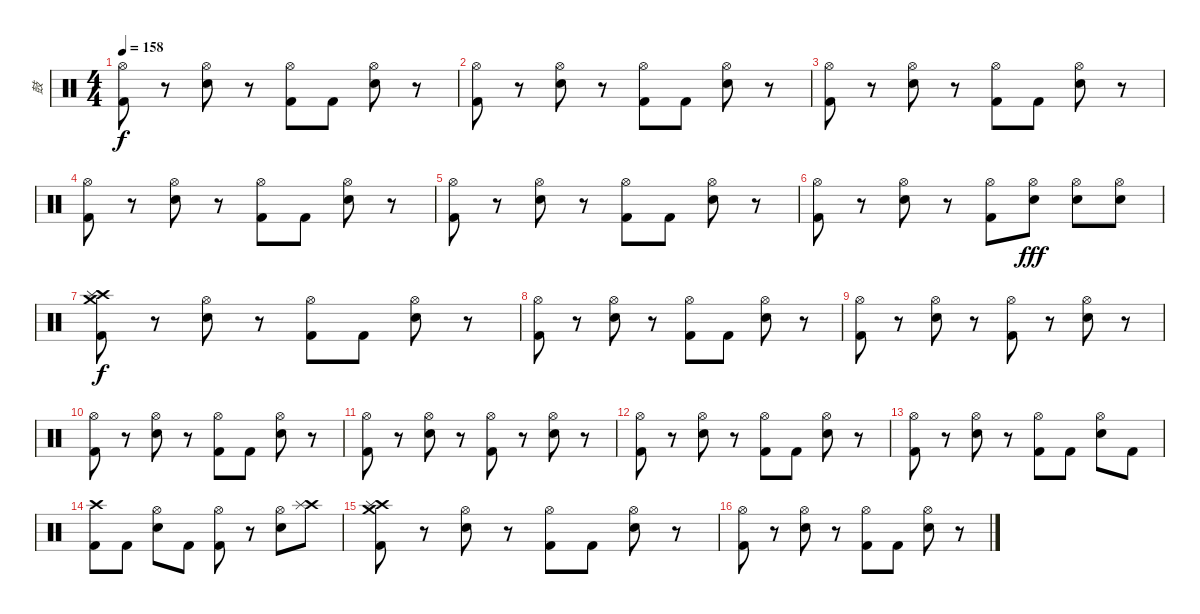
\track ("鼓" "鼓") {instrument percussion}
\staff {score}
\articulation defaults
\ts (4 4)
\tempo 158
\clef neutral
\ks c
("Hi-Hat (open)" "Kick (hit) 2").8{dy f} r.8 ("Hi-Hat (open)" "Electric Snare (hit)").8 r.8 ("Hi-Hat (open)" "Kick (hit) 2").8 "Kick (hit) 2".8 ("Hi-Hat (open)" "Electric Snare (hit)").8 r.8 |
("Hi-Hat (open)" "Kick (hit) 2").8 r.8 ("Hi-Hat (open)" "Electric Snare (hit)").8 r.8 ("Hi-Hat (open)" "Kick (hit) 2").8 "Kick (hit) 2".8 ("Hi-Hat (open)" "Electric Snare (hit)").8 r.8 |
("Hi-Hat (open)" "Kick (hit) 2").8 r.8 ("Hi-Hat (open)" "Electric Snare (hit)").8 r.8 ("Hi-Hat (open)" "Kick (hit) 2").8 "Kick (hit) 2".8 ("Hi-Hat (open)" "Electric Snare (hit)").8 r.8 |
("Hi-Hat (open)" "Kick (hit) 2").8 r.8 ("Hi-Hat (open)" "Electric Snare (hit)").8 r.8 ("Hi-Hat (open)" "Kick (hit) 2").8 "Kick (hit) 2".8 ("Hi-Hat (open)" "Electric Snare (hit)").8 r.8 |
("Hi-Hat (open)" "Kick (hit) 2").8 r.8 ("Hi-Hat (open)" "Electric Snare (hit)").8 r.8 ("Hi-Hat (open)" "Kick (hit) 2").8 "Kick (hit) 2".8 ("Hi-Hat (open)" "Electric Snare (hit)").8 r.8 |
("Hi-Hat (open)" "Kick (hit) 2").8 r.8 ("Hi-Hat (open)" "Electric Snare (hit)").8 r.8 ("Hi-Hat (open)" "Kick (hit) 2").8 ("Hi-Hat (open)" "Electric Snare (hit)").8{dy fff} ("Hi-Hat (open)" "Electric Snare (hit)").8 ("Hi-Hat (open)" "Electric Snare (hit)").8 |
("Crash medium (hit)" "Crash high (hit)" "Splash (hit)" "Kick (hit) 2").8{dy f} r.8 ("Hi-Hat (open)" "Electric Snare (hit)").8 r.8 ("Hi-Hat (open)" "Kick (hit) 2").8 "Kick (hit) 2".8 ("Hi-Hat (open)" "Electric Snare (hit)").8 r.8 |
("Hi-Hat (open)" "Kick (hit) 2").8 r.8 ("Hi-Hat (open)" "Electric Snare (hit)").8 r.8 ("Hi-Hat (open)" "Kick (hit) 2").8 "Kick (hit) 2".8 ("Hi-Hat (open)" "Electric Snare (hit)").8 r.8 |
("Hi-Hat (open)" "Kick (hit) 2").8 r.8 ("Hi-Hat (open)" "Electric Snare (hit)").8 r.8 ("Hi-Hat (open)" "Kick (hit) 2").8 r.8 ("Hi-Hat (open)" "Electric Snare (hit)").8 r.8 |
("Hi-Hat (open)" "Kick (hit) 2").8 r.8 ("Hi-Hat (open)" "Electric Snare (hit)").8 r.8 ("Hi-Hat (open)" "Kick (hit) 2").8 "Kick (hit) 2".8 ("Hi-Hat (open)" "Electric Snare (hit)").8 r.8 |
("Hi-Hat (open)" "Kick (hit) 2").8 r.8 ("Hi-Hat (open)" "Electric Snare (hit)").8 r.8 ("Hi-Hat (open)" "Kick (hit) 2").8 r.8 ("Hi-Hat (open)" "Electric Snare (hit)").8 r.8 |
("Hi-Hat (open)" "Kick (hit) 2").8 r.8 ("Hi-Hat (open)" "Electric Snare (hit)").8 r.8 ("Hi-Hat (open)" "Kick (hit) 2").8 "Kick (hit) 2".8 ("Hi-Hat (open)" "Electric Snare (hit)").8 r.8 |
("Hi-Hat (open)" "Kick (hit) 2").8 r.8 ("Hi-Hat (open)" "Electric Snare (hit)").8 r.8 ("Hi-Hat (open)" "Kick (hit) 2").8 "Kick (hit) 2".8 ("Hi-Hat (open)" "Electric Snare (hit)").8 "Kick (hit) 2".8 |
("Crash high (hit)" "Kick (hit) 2").8 "Kick (hit) 2".8 ("Hi-Hat (open)" "Electric Snare (hit)").8 "Kick (hit) 2".8 ("Hi-Hat (open)" "Kick (hit) 2").8 r.8 ("Hi-Hat (open)" "Electric Snare (hit)").8 ("Crash high (hit)" "Splash (hit)").8 |
("Crash medium (hit)" "Crash high (hit)" "Splash (hit)" "Kick (hit) 2").8 r.8 ("Hi-Hat (open)" "Electric Snare (hit)").8 r.8 ("Hi-Hat (open)" "Kick (hit) 2").8 "Kick (hit) 2".8 ("Hi-Hat (open)" "Electric Snare (hit)").8 r.8 |
("Hi-Hat (open)" "Kick (hit) 2").8 r.8 ("Hi-Hat (open)" "Electric Snare (hit)").8 r.8 ("Hi-Hat (open)" "Kick (hit) 2").8 "Kick (hit) 2".8 ("Hi-Hat (open)" "Electric Snare (hit)").8 r.8
